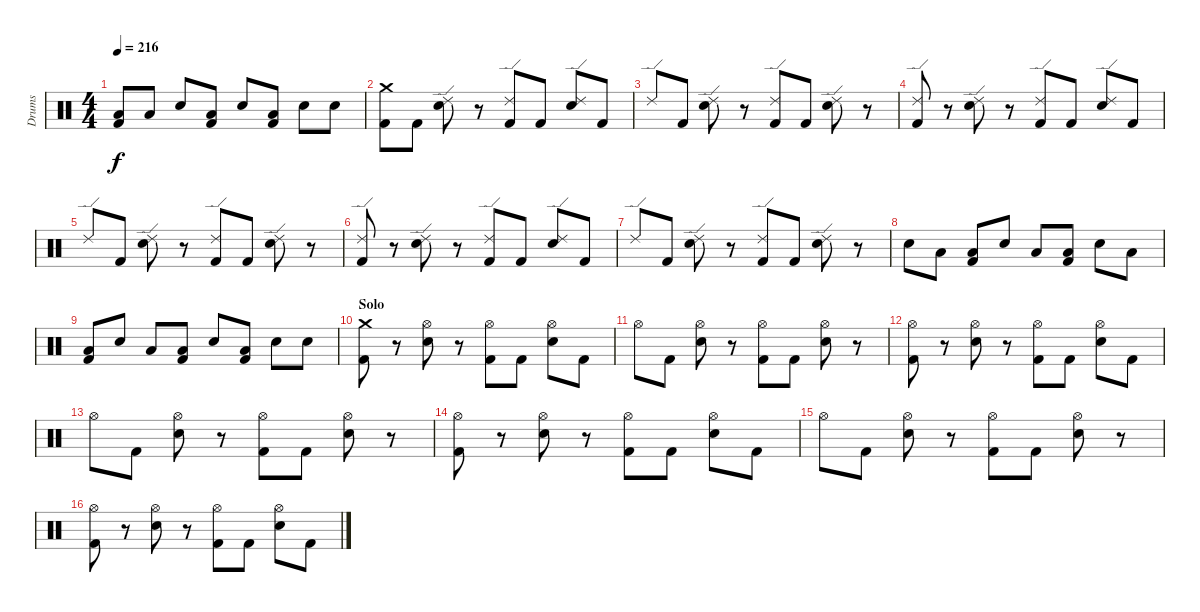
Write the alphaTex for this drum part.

\track ("Drums" "Drums") {instrument percussion}
\staff {score}
\articulation defaults
\ts (4 4)
\tempo 216
\clef neutral
\ks c
("Low Tom (hit)" "Kick (hit) 2").8{dy f} "Low Tom (hit)".8 "Electric Snare (hit)".8 ("Low Tom (hit)" "Kick (hit) 2").8 "Electric Snare (hit)".8 ("Low Tom (hit)" "Kick (hit) 2").8 "Electric Snare (hit)".8 "Electric Snare (hit)".8 |
("Crash medium (hit)" "Kick (hit) 2").8 "Kick (hit) 2".8 ("Ride (edge) 2" "Electric Snare (hit)").8 r.8 ("Ride (edge) 2" "Kick (hit) 2").8 "Kick (hit) 2".8 ("Ride (edge) 2" "Electric Snare (hit)").8 "Kick (hit) 2".8 |
"Ride (edge) 2".8 "Kick (hit) 2".8 ("Ride (edge) 2" "Electric Snare (hit)").8 r.8 ("Ride (edge) 2" "Kick (hit) 2").8 "Kick (hit) 2".8 ("Ride (edge) 2" "Electric Snare (hit)").8 r.8 |
("Ride (edge) 2" "Kick (hit) 2").8 r.8 ("Ride (edge) 2" "Electric Snare (hit)").8 r.8 ("Ride (edge) 2" "Kick (hit) 2").8 "Kick (hit) 2".8 ("Ride (edge) 2" "Electric Snare (hit)").8 "Kick (hit) 2".8 |
"Ride (edge) 2".8 "Kick (hit) 2".8 ("Ride (edge) 2" "Electric Snare (hit)").8 r.8 ("Ride (edge) 2" "Kick (hit) 2").8 "Kick (hit) 2".8 ("Ride (edge) 2" "Electric Snare (hit)").8 r.8 |
("Ride (edge) 2" "Kick (hit) 2").8 r.8 ("Ride (edge) 2" "Electric Snare (hit)").8 r.8 ("Ride (edge) 2" "Kick (hit) 2").8 "Kick (hit) 2".8 ("Ride (edge) 2" "Electric Snare (hit)").8 "Kick (hit) 2".8 |
"Ride (edge) 2".8 "Kick (hit) 2".8 ("Ride (edge) 2" "Electric Snare (hit)").8 r.8 ("Ride (edge) 2" "Kick (hit) 2").8 "Kick (hit) 2".8 ("Ride (edge) 2" "Electric Snare (hit)").8 r.8 |
"Electric Snare (hit)".8 "Low Tom (hit)".8 ("Low Tom (hit)" "Kick (hit) 2").8 "Electric Snare (hit)".8 "Low Tom (hit)".8 ("Low Tom (hit)" "Kick (hit) 2").8 "Electric Snare (hit)".8 "Low Tom (hit)".8 |
("Low Tom (hit)" "Kick (hit) 2").8 "Electric Snare (hit)".8 "Low Tom (hit)".8 ("Low Tom (hit)" "Kick (hit) 2").8 "Electric Snare (hit)".8 ("Low Tom (hit)" "Kick (hit) 2").8 "Electric Snare (hit)".8 "Electric Snare (hit)".8 |
\section ("" "Solo")
("Crash medium (hit)" "Kick (hit) 2").8 r.8 ("Hi-Hat (open)" "Electric Snare (hit)").8 r.8 ("Hi-Hat (open)" "Kick (hit) 2").8 "Kick (hit) 2".8 ("Hi-Hat (open)" "Electric Snare (hit)").8 "Kick (hit) 2".8 |
"Hi-Hat (open)".8 "Kick (hit) 2".8 ("Hi-Hat (open)" "Electric Snare (hit)").8 r.8 ("Hi-Hat (open)" "Kick (hit) 2").8 "Kick (hit) 2".8 ("Hi-Hat (open)" "Electric Snare (hit)").8 r.8 |
("Hi-Hat (open)" "Kick (hit) 2").8 r.8 ("Hi-Hat (open)" "Electric Snare (hit)").8 r.8 ("Hi-Hat (open)" "Kick (hit) 2").8 "Kick (hit) 2".8 ("Hi-Hat (open)" "Electric Snare (hit)").8 "Kick (hit) 2".8 |
"Hi-Hat (open)".8 "Kick (hit) 2".8 ("Hi-Hat (open)" "Electric Snare (hit)").8 r.8 ("Hi-Hat (open)" "Kick (hit) 2").8 "Kick (hit) 2".8 ("Hi-Hat (open)" "Electric Snare (hit)").8 r.8 |
("Hi-Hat (open)" "Kick (hit) 2").8 r.8 ("Hi-Hat (open)" "Electric Snare (hit)").8 r.8 ("Hi-Hat (open)" "Kick (hit) 2").8 "Kick (hit) 2".8 ("Hi-Hat (open)" "Electric Snare (hit)").8 "Kick (hit) 2".8 |
"Hi-Hat (open)".8 "Kick (hit) 2".8 ("Hi-Hat (open)" "Electric Snare (hit)").8 r.8 ("Hi-Hat (open)" "Kick (hit) 2").8 "Kick (hit) 2".8 ("Hi-Hat (open)" "Electric Snare (hit)").8 r.8 |
("Hi-Hat (open)" "Kick (hit) 2").8 r.8 ("Hi-Hat (open)" "Electric Snare (hit)").8 r.8 ("Hi-Hat (open)" "Kick (hit) 2").8 "Kick (hit) 2".8 ("Hi-Hat (open)" "Electric Snare (hit)").8 "Kick (hit) 2".8
